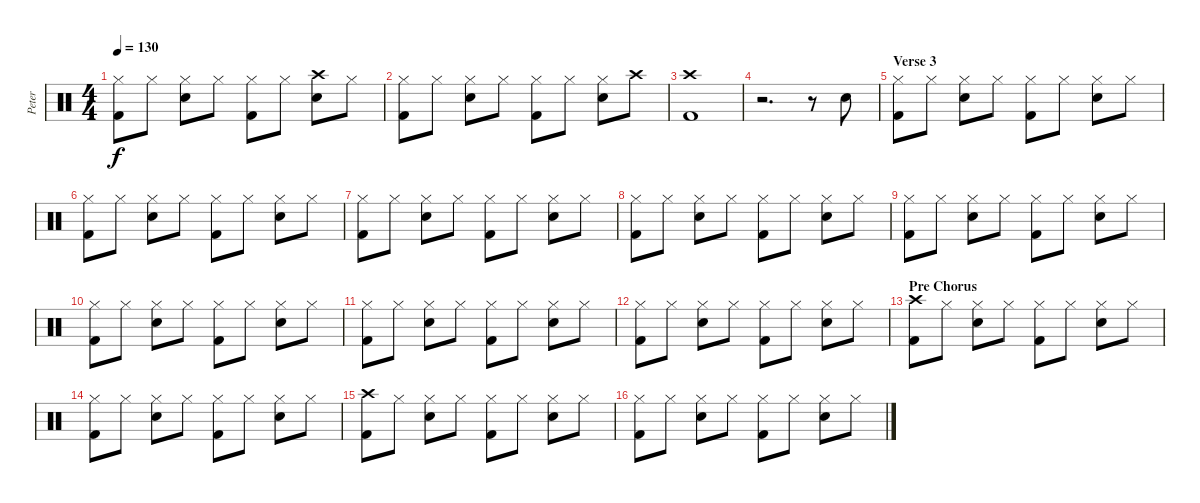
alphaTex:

\track ("Peter" "Peter") {instrument percussion}
\staff {score}
\articulation defaults
\ts (4 4)
\tempo 130
\clef neutral
\ks c
("Hi-Hat (closed)" "Kick (hit) 2").8{dy f} "Hi-Hat (closed)".8 ("Hi-Hat (closed)" "Snare (hit) 2").8 "Hi-Hat (closed)".8 ("Hi-Hat (closed)" "Kick (hit) 2").8 "Hi-Hat (closed)".8 ("Crash high (hit)" "Snare (hit) 2").8 "Hi-Hat (closed)".8 |
("Hi-Hat (closed)" "Kick (hit) 2").8 "Hi-Hat (closed)".8 ("Hi-Hat (closed)" "Snare (hit) 2").8 "Hi-Hat (closed)".8 ("Hi-Hat (closed)" "Kick (hit) 2").8 "Hi-Hat (closed)".8 ("Hi-Hat (closed)" "Snare (hit) 2").8 "Crash high (hit)".8 |
("Crash high (hit)" "Kick (hit) 2").1 |
r.2{d} r.8 "Electric Snare (hit)".8 |
\section ("" "Verse 3")
("Hi-Hat (closed)" "Kick (hit) 2").8 "Hi-Hat (closed)".8 ("Hi-Hat (closed)" "Electric Snare (hit)").8 "Hi-Hat (closed)".8 ("Hi-Hat (closed)" "Kick (hit) 2").8 "Hi-Hat (closed)".8 ("Hi-Hat (closed)" "Electric Snare (hit)").8 "Hi-Hat (closed)".8 |
("Hi-Hat (closed)" "Kick (hit) 2").8 "Hi-Hat (closed)".8 ("Hi-Hat (closed)" "Electric Snare (hit)").8 "Hi-Hat (closed)".8 ("Hi-Hat (closed)" "Kick (hit) 2").8 "Hi-Hat (closed)".8 ("Hi-Hat (closed)" "Electric Snare (hit)").8 "Hi-Hat (closed)".8 |
("Hi-Hat (closed)" "Kick (hit) 2").8 "Hi-Hat (closed)".8 ("Hi-Hat (closed)" "Electric Snare (hit)").8 "Hi-Hat (closed)".8 ("Hi-Hat (closed)" "Kick (hit) 2").8 "Hi-Hat (closed)".8 ("Hi-Hat (closed)" "Electric Snare (hit)").8 "Hi-Hat (closed)".8 |
("Hi-Hat (closed)" "Kick (hit) 2").8 "Hi-Hat (closed)".8 ("Hi-Hat (closed)" "Electric Snare (hit)").8 "Hi-Hat (closed)".8 ("Hi-Hat (closed)" "Kick (hit) 2").8 "Hi-Hat (closed)".8 ("Hi-Hat (closed)" "Electric Snare (hit)").8 "Hi-Hat (closed)".8 |
("Hi-Hat (closed)" "Kick (hit) 2").8 "Hi-Hat (closed)".8 ("Hi-Hat (closed)" "Electric Snare (hit)").8 "Hi-Hat (closed)".8 ("Hi-Hat (closed)" "Kick (hit) 2").8 "Hi-Hat (closed)".8 ("Hi-Hat (closed)" "Electric Snare (hit)").8 "Hi-Hat (closed)".8 |
("Hi-Hat (closed)" "Kick (hit) 2").8 "Hi-Hat (closed)".8 ("Hi-Hat (closed)" "Electric Snare (hit)").8 "Hi-Hat (closed)".8 ("Hi-Hat (closed)" "Kick (hit) 2").8 "Hi-Hat (closed)".8 ("Hi-Hat (closed)" "Electric Snare (hit)").8 "Hi-Hat (closed)".8 |
("Hi-Hat (closed)" "Kick (hit) 2").8 "Hi-Hat (closed)".8 ("Hi-Hat (closed)" "Electric Snare (hit)").8 "Hi-Hat (closed)".8 ("Hi-Hat (closed)" "Kick (hit) 2").8 "Hi-Hat (closed)".8 ("Hi-Hat (closed)" "Electric Snare (hit)").8 "Hi-Hat (closed)".8 |
("Hi-Hat (closed)" "Kick (hit) 2").8 "Hi-Hat (closed)".8 ("Hi-Hat (closed)" "Electric Snare (hit)").8 "Hi-Hat (closed)".8 ("Hi-Hat (closed)" "Kick (hit) 2").8 "Hi-Hat (closed)".8 ("Hi-Hat (closed)" "Electric Snare (hit)").8 "Hi-Hat (closed)".8 |
\section ("" "Pre Chorus")
("Crash high (hit)" "Kick (hit) 2").8 "Hi-Hat (closed)".8 ("Hi-Hat (closed)" "Snare (hit) 2").8 "Hi-Hat (closed)".8 ("Hi-Hat (closed)" "Kick (hit) 2").8 "Hi-Hat (closed)".8 ("Hi-Hat (closed)" "Snare (hit) 2").8 "Hi-Hat (closed)".8 |
("Hi-Hat (closed)" "Kick (hit) 2").8 "Hi-Hat (closed)".8 ("Hi-Hat (closed)" "Snare (hit) 2").8 "Hi-Hat (closed)".8 ("Hi-Hat (closed)" "Kick (hit) 2").8 "Hi-Hat (closed)".8 ("Hi-Hat (closed)" "Snare (hit) 2").8 "Hi-Hat (closed)".8 |
("Crash high (hit)" "Kick (hit) 2").8 "Hi-Hat (closed)".8 ("Hi-Hat (closed)" "Snare (hit) 2").8 "Hi-Hat (closed)".8 ("Hi-Hat (closed)" "Kick (hit) 2").8 "Hi-Hat (closed)".8 ("Hi-Hat (closed)" "Snare (hit) 2").8 "Hi-Hat (closed)".8 |
("Hi-Hat (closed)" "Kick (hit) 2").8 "Hi-Hat (closed)".8 ("Hi-Hat (closed)" "Snare (hit) 2").8 "Hi-Hat (closed)".8 ("Hi-Hat (closed)" "Kick (hit) 2").8 "Hi-Hat (closed)".8 ("Hi-Hat (closed)" "Snare (hit) 2").8 "Hi-Hat (closed)".8
